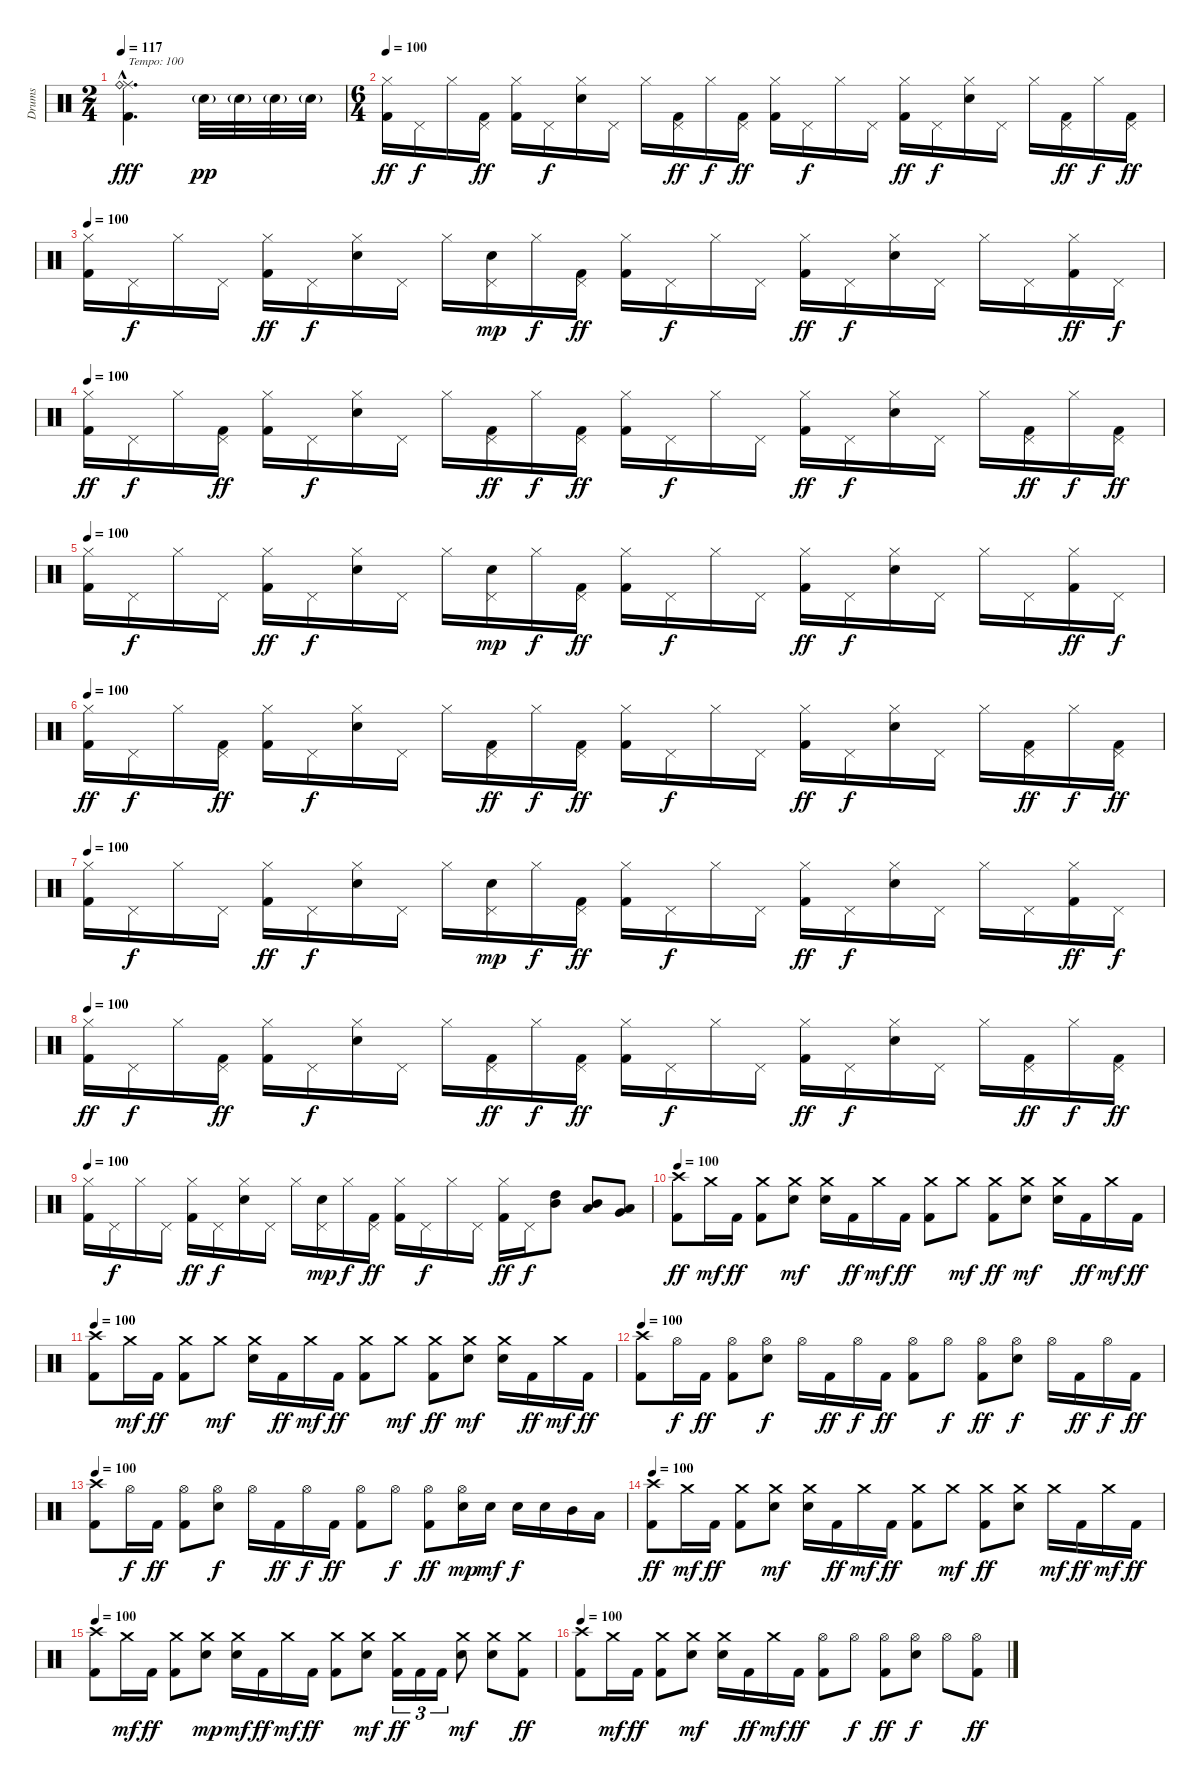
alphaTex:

\track ("Drums" "Drums") {instrument percussion}
\staff {score}
\articulation defaults
\ts (2 4)
\tempo 117
\tempo 100
\tempo 117
\clef neutral
\ks c
("Ride (middle)"{hac} "Ride (bell)"{hac} "Kick (hit) 2"{hac}).4{d txt "Tempo: 100" dy fff} "Electric Snare (hit)"{g}.32{dy pp} "Electric Snare (hit)"{g}.32 "Electric Snare (hit)"{g}.32 "Electric Snare (hit)"{g}.32 |
\ts (6 4)
\tempo 100
("Hi-Hat (closed)" "Kick (hit) 2").16{dy ff} "Pedal Hi-Hat (hit)".16{dy f} "Hi-Hat (closed)".16 ("Pedal Hi-Hat (hit)" "Kick (hit) 2").16{dy ff} ("Hi-Hat (closed)" "Kick (hit) 2").16 "Pedal Hi-Hat (hit)".16{dy f} ("Hi-Hat (closed)" "Electric Snare (hit)").16 "Pedal Hi-Hat (hit)".16 "Hi-Hat (closed)".16 ("Pedal Hi-Hat (hit)" "Kick (hit) 2").16{dy ff} "Hi-Hat (closed)".16{dy f} ("Pedal Hi-Hat (hit)" "Kick (hit) 2").16{dy ff} ("Hi-Hat (closed)" "Kick (hit) 2").16 "Pedal Hi-Hat (hit)".16{dy f} "Hi-Hat (closed)".16 "Pedal Hi-Hat (hit)".16 ("Hi-Hat (closed)" "Kick (hit) 2").16{dy ff} "Pedal Hi-Hat (hit)".16{dy f} ("Hi-Hat (closed)" "Electric Snare (hit)").16 "Pedal Hi-Hat (hit)".16 "Hi-Hat (closed)".16 ("Pedal Hi-Hat (hit)" "Kick (hit) 2").16{dy ff} "Hi-Hat (closed)".16{dy f} ("Pedal Hi-Hat (hit)" "Kick (hit) 2").16{dy ff} |
\tempo 100
("Hi-Hat (closed)" "Kick (hit) 2").16 "Pedal Hi-Hat (hit)".16{dy f} "Hi-Hat (closed)".16 "Pedal Hi-Hat (hit)".16 ("Hi-Hat (closed)" "Kick (hit) 2").16{dy ff} "Pedal Hi-Hat (hit)".16{dy f} ("Hi-Hat (closed)" "Electric Snare (hit)").16 "Pedal Hi-Hat (hit)".16 "Hi-Hat (closed)".16 ("Pedal Hi-Hat (hit)" "Electric Snare (hit)").16{dy mp} "Hi-Hat (closed)".16{dy f} ("Pedal Hi-Hat (hit)" "Kick (hit) 2").16{dy ff} ("Hi-Hat (closed)" "Kick (hit) 2").16 "Pedal Hi-Hat (hit)".16{dy f} "Hi-Hat (closed)".16 "Pedal Hi-Hat (hit)".16 ("Hi-Hat (closed)" "Kick (hit) 2").16{dy ff} "Pedal Hi-Hat (hit)".16{dy f} ("Hi-Hat (closed)" "Electric Snare (hit)").16 "Pedal Hi-Hat (hit)".16 "Hi-Hat (closed)".16 "Pedal Hi-Hat (hit)".16 ("Hi-Hat (closed)" "Kick (hit) 2").16{dy ff} "Pedal Hi-Hat (hit)".16{dy f} |
\tempo 100
("Hi-Hat (closed)" "Kick (hit) 2").16{dy ff} "Pedal Hi-Hat (hit)".16{dy f} "Hi-Hat (closed)".16 ("Pedal Hi-Hat (hit)" "Kick (hit) 2").16{dy ff} ("Hi-Hat (closed)" "Kick (hit) 2").16 "Pedal Hi-Hat (hit)".16{dy f} ("Hi-Hat (closed)" "Electric Snare (hit)").16 "Pedal Hi-Hat (hit)".16 "Hi-Hat (closed)".16 ("Pedal Hi-Hat (hit)" "Kick (hit) 2").16{dy ff} "Hi-Hat (closed)".16{dy f} ("Pedal Hi-Hat (hit)" "Kick (hit) 2").16{dy ff} ("Hi-Hat (closed)" "Kick (hit) 2").16 "Pedal Hi-Hat (hit)".16{dy f} "Hi-Hat (closed)".16 "Pedal Hi-Hat (hit)".16 ("Hi-Hat (closed)" "Kick (hit) 2").16{dy ff} "Pedal Hi-Hat (hit)".16{dy f} ("Hi-Hat (closed)" "Electric Snare (hit)").16 "Pedal Hi-Hat (hit)".16 "Hi-Hat (closed)".16 ("Pedal Hi-Hat (hit)" "Kick (hit) 2").16{dy ff} "Hi-Hat (closed)".16{dy f} ("Pedal Hi-Hat (hit)" "Kick (hit) 2").16{dy ff} |
\tempo 100
("Hi-Hat (closed)" "Kick (hit) 2").16 "Pedal Hi-Hat (hit)".16{dy f} "Hi-Hat (closed)".16 "Pedal Hi-Hat (hit)".16 ("Hi-Hat (closed)" "Kick (hit) 2").16{dy ff} "Pedal Hi-Hat (hit)".16{dy f} ("Hi-Hat (closed)" "Electric Snare (hit)").16 "Pedal Hi-Hat (hit)".16 "Hi-Hat (closed)".16 ("Pedal Hi-Hat (hit)" "Electric Snare (hit)").16{dy mp} "Hi-Hat (closed)".16{dy f} ("Pedal Hi-Hat (hit)" "Kick (hit) 2").16{dy ff} ("Hi-Hat (closed)" "Kick (hit) 2").16 "Pedal Hi-Hat (hit)".16{dy f} "Hi-Hat (closed)".16 "Pedal Hi-Hat (hit)".16 ("Hi-Hat (closed)" "Kick (hit) 2").16{dy ff} "Pedal Hi-Hat (hit)".16{dy f} ("Hi-Hat (closed)" "Electric Snare (hit)").16 "Pedal Hi-Hat (hit)".16 "Hi-Hat (closed)".16 "Pedal Hi-Hat (hit)".16 ("Hi-Hat (closed)" "Kick (hit) 2").16{dy ff} "Pedal Hi-Hat (hit)".16{dy f} |
\tempo 100
("Hi-Hat (closed)" "Kick (hit) 2").16{dy ff} "Pedal Hi-Hat (hit)".16{dy f} "Hi-Hat (closed)".16 ("Pedal Hi-Hat (hit)" "Kick (hit) 2").16{dy ff} ("Hi-Hat (closed)" "Kick (hit) 2").16 "Pedal Hi-Hat (hit)".16{dy f} ("Hi-Hat (closed)" "Electric Snare (hit)").16 "Pedal Hi-Hat (hit)".16 "Hi-Hat (closed)".16 ("Pedal Hi-Hat (hit)" "Kick (hit) 2").16{dy ff} "Hi-Hat (closed)".16{dy f} ("Pedal Hi-Hat (hit)" "Kick (hit) 2").16{dy ff} ("Hi-Hat (closed)" "Kick (hit) 2").16 "Pedal Hi-Hat (hit)".16{dy f} "Hi-Hat (closed)".16 "Pedal Hi-Hat (hit)".16 ("Hi-Hat (closed)" "Kick (hit) 2").16{dy ff} "Pedal Hi-Hat (hit)".16{dy f} ("Hi-Hat (closed)" "Electric Snare (hit)").16 "Pedal Hi-Hat (hit)".16 "Hi-Hat (closed)".16 ("Pedal Hi-Hat (hit)" "Kick (hit) 2").16{dy ff} "Hi-Hat (closed)".16{dy f} ("Pedal Hi-Hat (hit)" "Kick (hit) 2").16{dy ff} |
\tempo 100
("Hi-Hat (closed)" "Kick (hit) 2").16 "Pedal Hi-Hat (hit)".16{dy f} "Hi-Hat (closed)".16 "Pedal Hi-Hat (hit)".16 ("Hi-Hat (closed)" "Kick (hit) 2").16{dy ff} "Pedal Hi-Hat (hit)".16{dy f} ("Hi-Hat (closed)" "Electric Snare (hit)").16 "Pedal Hi-Hat (hit)".16 "Hi-Hat (closed)".16 ("Pedal Hi-Hat (hit)" "Electric Snare (hit)").16{dy mp} "Hi-Hat (closed)".16{dy f} ("Pedal Hi-Hat (hit)" "Kick (hit) 2").16{dy ff} ("Hi-Hat (closed)" "Kick (hit) 2").16 "Pedal Hi-Hat (hit)".16{dy f} "Hi-Hat (closed)".16 "Pedal Hi-Hat (hit)".16 ("Hi-Hat (closed)" "Kick (hit) 2").16{dy ff} "Pedal Hi-Hat (hit)".16{dy f} ("Hi-Hat (closed)" "Electric Snare (hit)").16 "Pedal Hi-Hat (hit)".16 "Hi-Hat (closed)".16 "Pedal Hi-Hat (hit)".16 ("Hi-Hat (closed)" "Kick (hit) 2").16{dy ff} "Pedal Hi-Hat (hit)".16{dy f} |
\tempo 100
("Hi-Hat (closed)" "Kick (hit) 2").16{dy ff} "Pedal Hi-Hat (hit)".16{dy f} "Hi-Hat (closed)".16 ("Pedal Hi-Hat (hit)" "Kick (hit) 2").16{dy ff} ("Hi-Hat (closed)" "Kick (hit) 2").16 "Pedal Hi-Hat (hit)".16{dy f} ("Hi-Hat (closed)" "Electric Snare (hit)").16 "Pedal Hi-Hat (hit)".16 "Hi-Hat (closed)".16 ("Pedal Hi-Hat (hit)" "Kick (hit) 2").16{dy ff} "Hi-Hat (closed)".16{dy f} ("Pedal Hi-Hat (hit)" "Kick (hit) 2").16{dy ff} ("Hi-Hat (closed)" "Kick (hit) 2").16 "Pedal Hi-Hat (hit)".16{dy f} "Hi-Hat (closed)".16 "Pedal Hi-Hat (hit)".16 ("Hi-Hat (closed)" "Kick (hit) 2").16{dy ff} "Pedal Hi-Hat (hit)".16{dy f} ("Hi-Hat (closed)" "Electric Snare (hit)").16 "Pedal Hi-Hat (hit)".16 "Hi-Hat (closed)".16 ("Pedal Hi-Hat (hit)" "Kick (hit) 2").16{dy ff} "Hi-Hat (closed)".16{dy f} ("Pedal Hi-Hat (hit)" "Kick (hit) 2").16{dy ff} |
\tempo 100
("Hi-Hat (closed)" "Kick (hit) 2").16 "Pedal Hi-Hat (hit)".16{dy f} "Hi-Hat (closed)".16 "Pedal Hi-Hat (hit)".16 ("Hi-Hat (closed)" "Kick (hit) 2").16{dy ff} "Pedal Hi-Hat (hit)".16{dy f} ("Hi-Hat (closed)" "Electric Snare (hit)").16 "Pedal Hi-Hat (hit)".16 "Hi-Hat (closed)".16 ("Pedal Hi-Hat (hit)" "Electric Snare (hit)").16{dy mp} "Hi-Hat (closed)".16{dy f} ("Pedal Hi-Hat (hit)" "Kick (hit) 2").16{dy ff} ("Hi-Hat (closed)" "Kick (hit) 2").16 "Pedal Hi-Hat (hit)".16{dy f} "Hi-Hat (closed)".16 "Pedal Hi-Hat (hit)".16 ("Hi-Hat (closed)" "Kick (hit) 2").16{dy ff} "Pedal Hi-Hat (hit)".16{dy f} ("High Tom (hit)" "Mid Tom (hit)").8 ("Mid Tom (hit)" "Low Tom (hit)").8 ("Very Low Tom (hit)" "Low Floor Tom (hit)").8 |
\tempo 100
("Crash high (hit)" "Kick (hit) 2").8{dy ff} "Crash medium (hit)".16{dy mf} "Kick (hit) 2".16{dy ff} ("Crash medium (hit)" "Kick (hit) 2").8 ("Crash medium (hit)" "Electric Snare (hit)").8{dy mf} ("Crash medium (hit)" "Electric Snare (hit)").16 "Kick (hit) 2".16{dy ff} "Crash medium (hit)".16{dy mf} "Kick (hit) 2".16{dy ff} ("Crash medium (hit)" "Kick (hit) 2").8 "Crash medium (hit)".8{dy mf} ("Crash medium (hit)" "Kick (hit) 2").8{dy ff} ("Crash medium (hit)" "Electric Snare (hit)").8{dy mf} ("Crash medium (hit)" "Electric Snare (hit)").16 "Kick (hit) 2".16{dy ff} "Crash medium (hit)".16{dy mf} "Kick (hit) 2".16{dy ff} |
\tempo 100
("Crash high (hit)" "Kick (hit) 2").8 "Crash medium (hit)".16{dy mf} "Kick (hit) 2".16{dy ff} ("Crash medium (hit)" "Kick (hit) 2").8 "Crash medium (hit)".8{dy mf} ("Crash medium (hit)" "Electric Snare (hit)").16 "Kick (hit) 2".16{dy ff} "Crash medium (hit)".16{dy mf} "Kick (hit) 2".16{dy ff} ("Crash medium (hit)" "Kick (hit) 2").8 "Crash medium (hit)".8{dy mf} ("Crash medium (hit)" "Kick (hit) 2").8{dy ff} ("Crash medium (hit)" "Electric Snare (hit)").8{dy mf} ("Crash medium (hit)" "Electric Snare (hit)").16 "Kick (hit) 2".16{dy ff} "Crash medium (hit)".16{dy mf} "Kick (hit) 2".16{dy ff} |
\tempo 100
("Crash high (hit)" "Kick (hit) 2").8 "Hi-Hat (open)".16{dy f} "Kick (hit) 2".16{dy ff} ("Hi-Hat (open)" "Kick (hit) 2").8 ("Hi-Hat (open)" "Electric Snare (hit)").8{dy f} "Hi-Hat (open)".16 "Kick (hit) 2".16{dy ff} "Hi-Hat (open)".16{dy f} "Kick (hit) 2".16{dy ff} ("Hi-Hat (open)" "Kick (hit) 2").8 "Hi-Hat (open)".8{dy f} ("Hi-Hat (open)" "Kick (hit) 2").8{dy ff} ("Hi-Hat (open)" "Electric Snare (hit)").8{dy f} "Hi-Hat (open)".16 "Kick (hit) 2".16{dy ff} "Hi-Hat (open)".16{dy f} "Kick (hit) 2".16{dy ff} |
\tempo 100
("Crash high (hit)" "Kick (hit) 2").8 "Hi-Hat (open)".16{dy f} "Kick (hit) 2".16{dy ff} ("Hi-Hat (open)" "Kick (hit) 2").8 ("Hi-Hat (open)" "Electric Snare (hit)").8{dy f} "Hi-Hat (open)".16 "Kick (hit) 2".16{dy ff} "Hi-Hat (open)".16{dy f} "Kick (hit) 2".16{dy ff} ("Hi-Hat (open)" "Kick (hit) 2").8 "Hi-Hat (open)".8{dy f} ("Hi-Hat (open)" "Kick (hit) 2").8{dy ff} ("Hi-Hat (open)" "Electric Snare (hit)").16{dy mp} "Electric Snare (hit)".16{dy mf} "Electric Snare (hit)".16{dy f} "Electric Snare (hit)".16 "Mid Tom (hit)".16 "Low Tom (hit)".16 |
\tempo 100
("Crash high (hit)" "Kick (hit) 2").8{dy ff} "Crash medium (hit)".16{dy mf} "Kick (hit) 2".16{dy ff} ("Crash medium (hit)" "Kick (hit) 2").8 ("Crash medium (hit)" "Electric Snare (hit)").8{dy mf} ("Crash medium (hit)" "Electric Snare (hit)").16 "Kick (hit) 2".16{dy ff} "Crash medium (hit)".16{dy mf} "Kick (hit) 2".16{dy ff} ("Crash medium (hit)" "Kick (hit) 2").8 "Crash medium (hit)".8{dy mf} ("Crash medium (hit)" "Kick (hit) 2").8{dy ff} ("Crash medium (hit)" "Electric Snare (hit)").8 "Crash medium (hit)".16{dy mf} "Kick (hit) 2".16{dy ff} "Crash medium (hit)".16{dy mf} "Kick (hit) 2".16{dy ff} |
\tempo 100
("Crash high (hit)" "Kick (hit) 2").8 "Crash medium (hit)".16{dy mf} "Kick (hit) 2".16{dy ff} ("Crash medium (hit)" "Kick (hit) 2").8 ("Crash medium (hit)" "Electric Snare (hit)").8{dy mp} ("Crash medium (hit)" "Electric Snare (hit)").16{dy mf} "Kick (hit) 2".16{dy ff} "Crash medium (hit)".16{dy mf} "Kick (hit) 2".16{dy ff} ("Crash medium (hit)" "Kick (hit) 2").8 ("Crash medium (hit)" "Electric Snare (hit)").8{dy mf} ("Crash medium (hit)" "Kick (hit) 2").16{tu (3 2) dy ff} "Kick (hit) 2".16{tu (3 2)} "Kick (hit) 2".16{tu (3 2)} ("Crash medium (hit)" "Electric Snare (hit)").8{dy mf} ("Crash medium (hit)" "Electric Snare (hit)").8 ("Crash medium (hit)" "Kick (hit) 2").8{dy ff} |
\tempo 100
("Crash high (hit)" "Kick (hit) 2").8 "Crash medium (hit)".16{dy mf} "Kick (hit) 2".16{dy ff} ("Crash medium (hit)" "Kick (hit) 2").8 ("Crash medium (hit)" "Electric Snare (hit)").8{dy mf} ("Crash medium (hit)" "Electric Snare (hit)").16 "Kick (hit) 2".16{dy ff} "Crash medium (hit)".16{dy mf} "Kick (hit) 2".16{dy ff} ("Hi-Hat (open)" "Kick (hit) 2").8 "Hi-Hat (open)".8{dy f} ("Hi-Hat (open)" "Kick (hit) 2").8{dy ff} ("Hi-Hat (open)" "Electric Snare (hit)").8{dy f} "Hi-Hat (open)".8 ("Hi-Hat (open)" "Kick (hit) 2").8{dy ff}
